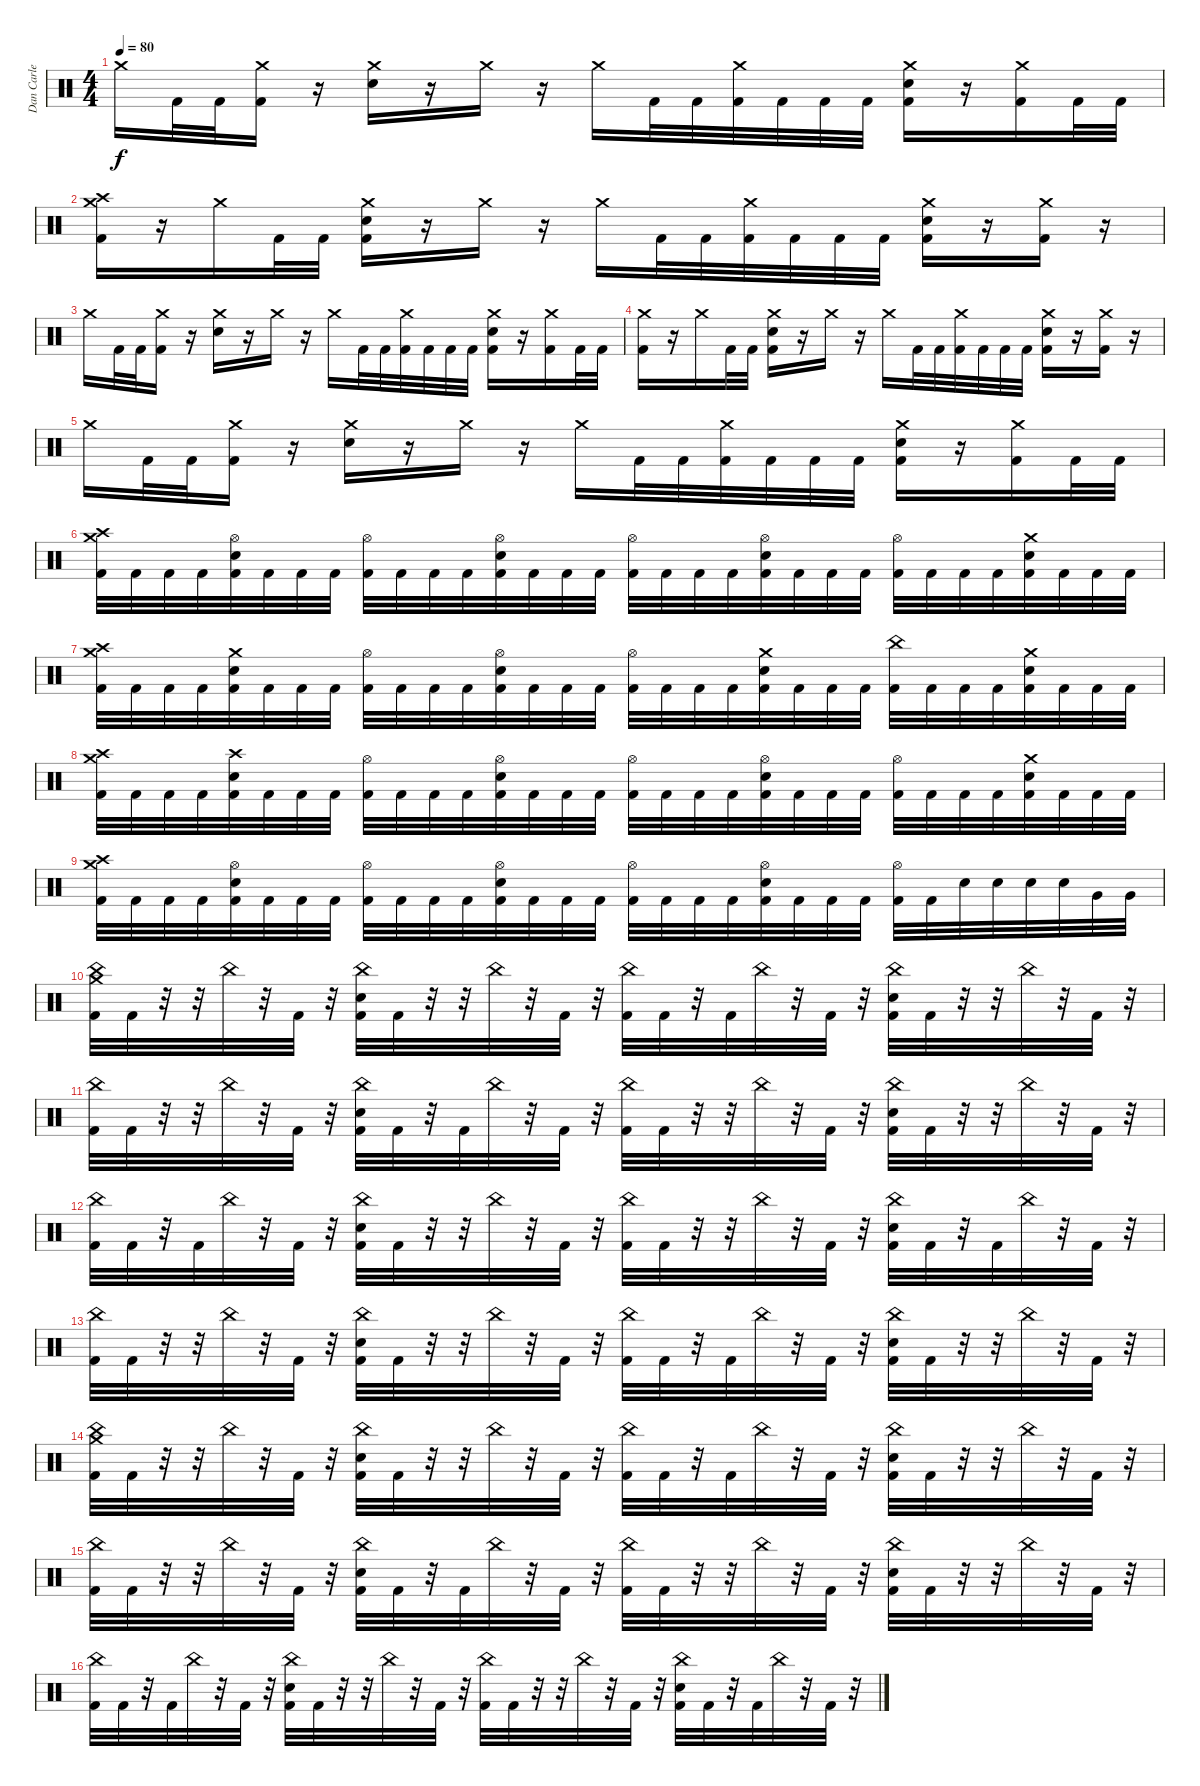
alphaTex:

\track ("Dan Carle" "Dan Carle") {instrument percussion}
\staff {score}
\articulation defaults
\ts (4 4)
\tempo 80
\clef neutral
\ks c "Crash medium (hit)".16{dy f} "Kick (hit) 2".32 "Kick (hit) 2".32
("Crash medium (hit)" "Kick (hit) 2").16 r.16 ("Crash medium (hit)" "Snare (hit) 2").16 r.16 "Crash medium (hit)".16 r.16 "Crash medium (hit)".16 "Kick (hit) 2".32 "Kick (hit) 2".32 ("Crash medium (hit)" "Kick (hit) 2").32 "Kick (hit) 2".32 "Kick (hit) 2".32 "Kick (hit) 2".32 ("Crash medium (hit)" "Snare (hit) 2" "Kick (hit) 2").16 r.16 ("Crash medium (hit)" "Kick (hit) 2").16 "Kick (hit) 2".32 "Kick (hit) 2".32 |
("Crash medium (hit)" "Crash high (hit)" "Kick (hit) 2").16 r.16 "Crash medium (hit)".16 "Kick (hit) 2".32 "Kick (hit) 2".32 ("Crash medium (hit)" "Snare (hit) 2" "Kick (hit) 2").16 r.16 "Crash medium (hit)".16 r.16 "Crash medium (hit)".16 "Kick (hit) 2".32 "Kick (hit) 2".32 ("Crash medium (hit)" "Kick (hit) 2").32 "Kick (hit) 2".32 "Kick (hit) 2".32 "Kick (hit) 2".32 ("Crash medium (hit)" "Snare (hit) 2" "Kick (hit) 2").16 r.16 ("Crash medium (hit)" "Kick (hit) 2").16 r.16 |
"Crash medium (hit)".16 "Kick (hit) 2".32 "Kick (hit) 2".32 ("Crash medium (hit)" "Kick (hit) 2").16 r.16 ("Crash medium (hit)" "Snare (hit) 2").16 r.16 "Crash medium (hit)".16 r.16 "Crash medium (hit)".16 "Kick (hit) 2".32 "Kick (hit) 2".32 ("Crash medium (hit)" "Kick (hit) 2").32 "Kick (hit) 2".32 "Kick (hit) 2".32 "Kick (hit) 2".32 ("Crash medium (hit)" "Snare (hit) 2" "Kick (hit) 2").16 r.16 ("Crash medium (hit)" "Kick (hit) 2").16 "Kick (hit) 2".32 "Kick (hit) 2".32 |
("Crash medium (hit)" "Kick (hit) 2").16 r.16 "Crash medium (hit)".16 "Kick (hit) 2".32 "Kick (hit) 2".32 ("Crash medium (hit)" "Snare (hit) 2" "Kick (hit) 2").16 r.16 "Crash medium (hit)".16 r.16 "Crash medium (hit)".16 "Kick (hit) 2".32 "Kick (hit) 2".32 ("Crash medium (hit)" "Kick (hit) 2").32 "Kick (hit) 2".32 "Kick (hit) 2".32 "Kick (hit) 2".32 ("Crash medium (hit)" "Snare (hit) 2" "Kick (hit) 2").16 r.16 ("Crash medium (hit)" "Kick (hit) 2").16 r.16 |
"Crash medium (hit)".16 "Kick (hit) 2".32 "Kick (hit) 2".32 ("Crash medium (hit)" "Kick (hit) 2").16 r.16 ("Crash medium (hit)" "Snare (hit) 2").16 r.16 "Crash medium (hit)".16 r.16 "Crash medium (hit)".16 "Kick (hit) 2".32 "Kick (hit) 2".32 ("Crash medium (hit)" "Kick (hit) 2").32 "Kick (hit) 2".32 "Kick (hit) 2".32 "Kick (hit) 2".32 ("Crash medium (hit)" "Snare (hit) 2" "Kick (hit) 2").16 r.16 ("Crash medium (hit)" "Kick (hit) 2").16 "Kick (hit) 2".32 "Kick (hit) 2".32 |
("Crash medium (hit)" "Crash high (hit)" "Kick (hit) 2").32 "Kick (hit) 2".32 "Kick (hit) 2".32 "Kick (hit) 2".32 ("Hi-Hat (open)" "Snare (hit) 2" "Kick (hit) 2").32 "Kick (hit) 2".32 "Kick (hit) 2".32 "Kick (hit) 2".32 ("Hi-Hat (open)" "Kick (hit) 2").32 "Kick (hit) 2".32 "Kick (hit) 2".32 "Kick (hit) 2".32 ("Hi-Hat (open)" "Snare (hit) 2" "Kick (hit) 2").32 "Kick (hit) 2".32 "Kick (hit) 2".32 "Kick (hit) 2".32 ("Hi-Hat (open)" "Kick (hit) 2").32 "Kick (hit) 2".32 "Kick (hit) 2".32 "Kick (hit) 2".32 ("Hi-Hat (open)" "Snare (hit) 2" "Kick (hit) 2").32 "Kick (hit) 2".32 "Kick (hit) 2".32 "Kick (hit) 2".32 ("Hi-Hat (open)" "Kick (hit) 2").32 "Kick (hit) 2".32 "Kick (hit) 2".32 "Kick (hit) 2".32 ("Crash medium (hit)" "Snare (hit) 2" "Kick (hit) 2").32 "Kick (hit) 2".32 "Kick (hit) 2".32 "Kick (hit) 2".32 |
("Crash medium (hit)" "Crash high (hit)" "Kick (hit) 2").32 "Kick (hit) 2".32 "Kick (hit) 2".32 "Kick (hit) 2".32 ("Crash medium (hit)" "Snare (hit) 2" "Kick (hit) 2").32 "Kick (hit) 2".32 "Kick (hit) 2".32 "Kick (hit) 2".32 ("Hi-Hat (open)" "Kick (hit) 2").32 "Kick (hit) 2".32 "Kick (hit) 2".32 "Kick (hit) 2".32 ("Hi-Hat (open)" "Snare (hit) 2" "Kick (hit) 2").32 "Kick (hit) 2".32 "Kick (hit) 2".32 "Kick (hit) 2".32 ("Hi-Hat (open)" "Kick (hit) 2").32 "Kick (hit) 2".32 "Kick (hit) 2".32 "Kick (hit) 2".32 ("Crash medium (hit)" "Snare (hit) 2" "Kick (hit) 2").32 "Kick (hit) 2".32 "Kick (hit) 2".32 "Kick (hit) 2".32 ("China (hit)" "Kick (hit) 2").32 "Kick (hit) 2".32 "Kick (hit) 2".32 "Kick (hit) 2".32 ("Crash medium (hit)" "Snare (hit) 2" "Kick (hit) 2").32 "Kick (hit) 2".32 "Kick (hit) 2".32 "Kick (hit) 2".32 |
("Crash medium (hit)" "Crash high (hit)" "Kick (hit) 2").32 "Kick (hit) 2".32 "Kick (hit) 2".32 "Kick (hit) 2".32 ("Crash high (hit)" "Snare (hit) 2" "Kick (hit) 2").32 "Kick (hit) 2".32 "Kick (hit) 2".32 "Kick (hit) 2".32 ("Hi-Hat (open)" "Kick (hit) 2").32 "Kick (hit) 2".32 "Kick (hit) 2".32 "Kick (hit) 2".32 ("Hi-Hat (open)" "Snare (hit) 2" "Kick (hit) 2").32 "Kick (hit) 2".32 "Kick (hit) 2".32 "Kick (hit) 2".32 ("Hi-Hat (open)" "Kick (hit) 2").32 "Kick (hit) 2".32 "Kick (hit) 2".32 "Kick (hit) 2".32 ("Hi-Hat (open)" "Snare (hit) 2" "Kick (hit) 2").32 "Kick (hit) 2".32 "Kick (hit) 2".32 "Kick (hit) 2".32 ("Hi-Hat (open)" "Kick (hit) 2").32 "Kick (hit) 2".32 "Kick (hit) 2".32 "Kick (hit) 2".32 ("Crash medium (hit)" "Snare (hit) 2" "Kick (hit) 2").32 "Kick (hit) 2".32 "Kick (hit) 2".32 "Kick (hit) 2".32 |
("Crash medium (hit)" "Crash high (hit)" "Kick (hit) 2").32 "Kick (hit) 2".32 "Kick (hit) 2".32 "Kick (hit) 2".32 ("Hi-Hat (open)" "Snare (hit) 2" "Kick (hit) 2").32 "Kick (hit) 2".32 "Kick (hit) 2".32 "Kick (hit) 2".32 ("Hi-Hat (open)" "Kick (hit) 2").32 "Kick (hit) 2".32 "Kick (hit) 2".32 "Kick (hit) 2".32 ("Hi-Hat (open)" "Snare (hit) 2" "Kick (hit) 2").32 "Kick (hit) 2".32 "Kick (hit) 2".32 "Kick (hit) 2".32 ("Hi-Hat (open)" "Kick (hit) 2").32 "Kick (hit) 2".32 "Kick (hit) 2".32 "Kick (hit) 2".32 ("Hi-Hat (open)" "Snare (hit) 2" "Kick (hit) 2").32 "Kick (hit) 2".32 "Kick (hit) 2".32 "Kick (hit) 2".32 ("Hi-Hat (open)" "Kick (hit) 2").32 "Kick (hit) 2".32 "Snare (hit) 2".32 "Snare (hit) 2".32 "Snare (hit) 2".32 "Snare (hit) 2".32 "Very Low Tom (hit)".32 "Very Low Tom (hit)".32 |
("China (hit)" "Crash medium (hit)" "Kick (hit) 2").32 "Kick (hit) 2".32 r.32 r.32 "China (hit)".32 r.32 "Kick (hit) 2".32 r.32 ("China (hit)" "Snare (hit) 2" "Kick (hit) 2").32 "Kick (hit) 2".32 r.32 r.32 "China (hit)".32 r.32 "Kick (hit) 2".32 r.32 ("China (hit)" "Kick (hit) 2").32 "Kick (hit) 2".32 r.32 "Kick (hit) 2".32 "China (hit)".32 r.32 "Kick (hit) 2".32 r.32 ("China (hit)" "Snare (hit) 2" "Kick (hit) 2").32 "Kick (hit) 2".32 r.32 r.32 "China (hit)".32 r.32 "Kick (hit) 2".32 r.32 |
("China (hit)" "Kick (hit) 2").32 "Kick (hit) 2".32 r.32 r.32 "China (hit)".32 r.32 "Kick (hit) 2".32 r.32 ("China (hit)" "Snare (hit) 2" "Kick (hit) 2").32 "Kick (hit) 2".32 r.32 "Kick (hit) 2".32 "China (hit)".32 r.32 "Kick (hit) 2".32 r.32 ("China (hit)" "Kick (hit) 2").32 "Kick (hit) 2".32 r.32 r.32 "China (hit)".32 r.32 "Kick (hit) 2".32 r.32 ("China (hit)" "Snare (hit) 2" "Kick (hit) 2").32 "Kick (hit) 2".32 r.32 r.32 "China (hit)".32 r.32 "Kick (hit) 2".32 r.32 |
("China (hit)" "Kick (hit) 2").32 "Kick (hit) 2".32 r.32 "Kick (hit) 2".32 "China (hit)".32 r.32 "Kick (hit) 2".32 r.32 ("China (hit)" "Snare (hit) 2" "Kick (hit) 2").32 "Kick (hit) 2".32 r.32 r.32 "China (hit)".32 r.32 "Kick (hit) 2".32 r.32 ("China (hit)" "Kick (hit) 2").32 "Kick (hit) 2".32 r.32 r.32 "China (hit)".32 r.32 "Kick (hit) 2".32 r.32 ("China (hit)" "Snare (hit) 2" "Kick (hit) 2").32 "Kick (hit) 2".32 r.32 "Kick (hit) 2".32 "China (hit)".32 r.32 "Kick (hit) 2".32 r.32 |
("China (hit)" "Kick (hit) 2").32 "Kick (hit) 2".32 r.32 r.32 "China (hit)".32 r.32 "Kick (hit) 2".32 r.32 ("China (hit)" "Snare (hit) 2" "Kick (hit) 2").32 "Kick (hit) 2".32 r.32 r.32 "China (hit)".32 r.32 "Kick (hit) 2".32 r.32 ("China (hit)" "Kick (hit) 2").32 "Kick (hit) 2".32 r.32 "Kick (hit) 2".32 "China (hit)".32 r.32 "Kick (hit) 2".32 r.32 ("China (hit)" "Snare (hit) 2" "Kick (hit) 2").32 "Kick (hit) 2".32 r.32 r.32 "China (hit)".32 r.32 "Kick (hit) 2".32 r.32 |
("China (hit)" "Crash medium (hit)" "Kick (hit) 2").32 "Kick (hit) 2".32 r.32 r.32 "China (hit)".32 r.32 "Kick (hit) 2".32 r.32 ("China (hit)" "Snare (hit) 2" "Kick (hit) 2").32 "Kick (hit) 2".32 r.32 r.32 "China (hit)".32 r.32 "Kick (hit) 2".32 r.32 ("China (hit)" "Kick (hit) 2").32 "Kick (hit) 2".32 r.32 "Kick (hit) 2".32 "China (hit)".32 r.32 "Kick (hit) 2".32 r.32 ("China (hit)" "Snare (hit) 2" "Kick (hit) 2").32 "Kick (hit) 2".32 r.32 r.32 "China (hit)".32 r.32 "Kick (hit) 2".32 r.32 |
("China (hit)" "Kick (hit) 2").32 "Kick (hit) 2".32 r.32 r.32 "China (hit)".32 r.32 "Kick (hit) 2".32 r.32 ("China (hit)" "Snare (hit) 2" "Kick (hit) 2").32 "Kick (hit) 2".32 r.32 "Kick (hit) 2".32 "China (hit)".32 r.32 "Kick (hit) 2".32 r.32 ("China (hit)" "Kick (hit) 2").32 "Kick (hit) 2".32 r.32 r.32 "China (hit)".32 r.32 "Kick (hit) 2".32 r.32 ("China (hit)" "Snare (hit) 2" "Kick (hit) 2").32 "Kick (hit) 2".32 r.32 r.32 "China (hit)".32 r.32 "Kick (hit) 2".32 r.32 |
("China (hit)" "Kick (hit) 2").32 "Kick (hit) 2".32 r.32 "Kick (hit) 2".32 "China (hit)".32 r.32 "Kick (hit) 2".32 r.32 ("China (hit)" "Snare (hit) 2" "Kick (hit) 2").32 "Kick (hit) 2".32 r.32 r.32 "China (hit)".32 r.32 "Kick (hit) 2".32 r.32 ("China (hit)" "Kick (hit) 2").32 "Kick (hit) 2".32 r.32 r.32 "China (hit)".32 r.32 "Kick (hit) 2".32 r.32 ("China (hit)" "Snare (hit) 2" "Kick (hit) 2").32 "Kick (hit) 2".32 r.32 "Kick (hit) 2".32 "China (hit)".32 r.32 "Kick (hit) 2".32 r.32
